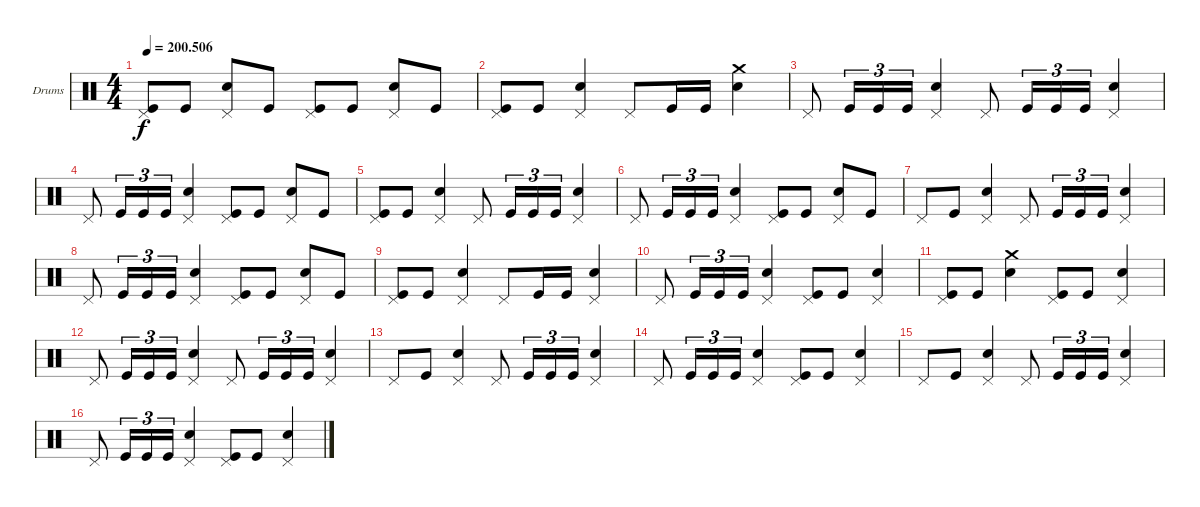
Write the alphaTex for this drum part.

\bracketExtendMode groupsimilarinstruments
\firstSystemTrackNameOrientation horizontal
\otherSystemsTrackNameOrientation horizontal
\track ("Drums" "Drums") {instrument percussion}
\staff {score}
\articulation defaults
\ts (4 4)
\tempo
200.506
\accidentals auto
\clef neutral
\ottava regular
\simile none
\ks c
("Pedal Hi-Hat (hit)" "Kick (hit)").8{dy f} "Kick (hit)".8 ("Pedal Hi-Hat (hit)" "Snare (hit) 2").8 "Kick (hit)".8 ("Pedal Hi-Hat (hit)" "Kick (hit)").8 "Kick (hit)".8 ("Pedal Hi-Hat (hit)" "Snare (hit) 2").8 "Kick (hit)".8 |
("Pedal Hi-Hat (hit)" "Kick (hit)").8 "Kick (hit)".8 ("Pedal Hi-Hat (hit)" "Snare (hit) 2").4 "Pedal Hi-Hat (hit)".8 "Kick (hit)".16 "Kick (hit)".16 ("Crash medium (hit)" "Snare (hit) 2").4 |
"Pedal Hi-Hat (hit)".8 "Kick (hit)".16{tu (3 2)} "Kick (hit)".16{tu (3 2)} "Kick (hit)".16{tu (3 2)} ("Pedal Hi-Hat (hit)" "Snare (hit) 2").4 "Pedal Hi-Hat (hit)".8 "Kick (hit)".16{tu (3 2)} "Kick (hit)".16{tu (3 2)} "Kick (hit)".16{tu (3 2)} ("Pedal Hi-Hat (hit)" "Snare (hit) 2").4 |
"Pedal Hi-Hat (hit)".8 "Kick (hit)".16{tu (3 2)} "Kick (hit)".16{tu (3 2)} "Kick (hit)".16{tu (3 2)} ("Pedal Hi-Hat (hit)" "Snare (hit) 2").4 ("Pedal Hi-Hat (hit)" "Kick (hit)").8 "Kick (hit)".8 ("Pedal Hi-Hat (hit)" "Snare (hit) 2").8 "Kick (hit)".8 |
("Pedal Hi-Hat (hit)" "Kick (hit)").8 "Kick (hit)".8 ("Pedal Hi-Hat (hit)" "Snare (hit) 2").4 "Pedal Hi-Hat (hit)".8 "Kick (hit)".16{tu (3 2)} "Kick (hit)".16{tu (3 2)} "Kick (hit)".16{tu (3 2)} ("Pedal Hi-Hat (hit)" "Snare (hit) 2").4 |
"Pedal Hi-Hat (hit)".8 "Kick (hit)".16{tu (3 2)} "Kick (hit)".16{tu (3 2)} "Kick (hit)".16{tu (3 2)} ("Pedal Hi-Hat (hit)" "Snare (hit) 2").4 ("Pedal Hi-Hat (hit)" "Kick (hit)").8 "Kick (hit)".8 ("Pedal Hi-Hat (hit)" "Snare (hit) 2").8 "Kick (hit)".8 |
"Pedal Hi-Hat (hit)".8 "Kick (hit)".8 ("Pedal Hi-Hat (hit)" "Snare (hit) 2").4 "Pedal Hi-Hat (hit)".8 "Kick (hit)".16{tu (3 2)} "Kick (hit)".16{tu (3 2)} "Kick (hit)".16{tu (3 2)} ("Pedal Hi-Hat (hit)" "Snare (hit) 2").4 |
"Pedal Hi-Hat (hit)".8 "Kick (hit)".16{tu (3 2)} "Kick (hit)".16{tu (3 2)} "Kick (hit)".16{tu (3 2)} ("Pedal Hi-Hat (hit)" "Snare (hit) 2").4 ("Pedal Hi-Hat (hit)" "Kick (hit)").8 "Kick (hit)".8 ("Pedal Hi-Hat (hit)" "Snare (hit) 2").8 "Kick (hit)".8 |
("Pedal Hi-Hat (hit)" "Kick (hit)").8 "Kick (hit)".8 ("Pedal Hi-Hat (hit)" "Snare (hit) 2").4 "Pedal Hi-Hat (hit)".8 "Kick (hit)".16 "Kick (hit)".16 ("Pedal Hi-Hat (hit)" "Snare (hit) 2").4 |
"Pedal Hi-Hat (hit)".8 "Kick (hit)".16{tu (3 2)} "Kick (hit)".16{tu (3 2)} "Kick (hit)".16{tu (3 2)} ("Pedal Hi-Hat (hit)" "Snare (hit) 2").4 ("Pedal Hi-Hat (hit)" "Kick (hit)").8 "Kick (hit)".8 ("Pedal Hi-Hat (hit)" "Snare (hit) 2").4 |
("Pedal Hi-Hat (hit)" "Kick (hit)").8 "Kick (hit)".8 ("Crash medium (hit)" "Snare (hit) 2").4 ("Pedal Hi-Hat (hit)" "Kick (hit)").8 "Kick (hit)".8 ("Pedal Hi-Hat (hit)" "Snare (hit) 2").4 |
"Pedal Hi-Hat (hit)".8 "Kick (hit)".16{tu (3 2)} "Kick (hit)".16{tu (3 2)} "Kick (hit)".16{tu (3 2)} ("Pedal Hi-Hat (hit)" "Snare (hit) 2").4 "Pedal Hi-Hat (hit)".8 "Kick (hit)".16{tu (3 2)} "Kick (hit)".16{tu (3 2)} "Kick (hit)".16{tu (3 2)} ("Pedal Hi-Hat (hit)" "Snare (hit) 2").4 |
"Pedal Hi-Hat (hit)".8 "Kick (hit)".8 ("Pedal Hi-Hat (hit)" "Snare (hit) 2").4 "Pedal Hi-Hat (hit)".8 "Kick (hit)".16{tu (3 2)} "Kick (hit)".16{tu (3 2)} "Kick (hit)".16{tu (3 2)} ("Pedal Hi-Hat (hit)" "Snare (hit) 2").4 |
"Pedal Hi-Hat (hit)".8 "Kick (hit)".16{tu (3 2)} "Kick (hit)".16{tu (3 2)} "Kick (hit)".16{tu (3 2)} ("Pedal Hi-Hat (hit)" "Snare (hit) 2").4 ("Pedal Hi-Hat (hit)" "Kick (hit)").8 "Kick (hit)".8 ("Pedal Hi-Hat (hit)" "Snare (hit) 2").4 |
"Pedal Hi-Hat (hit)".8 "Kick (hit)".8 ("Pedal Hi-Hat (hit)" "Snare (hit) 2").4 "Pedal Hi-Hat (hit)".8 "Kick (hit)".16{tu (3 2)} "Kick (hit)".16{tu (3 2)} "Kick (hit)".16{tu (3 2)} ("Pedal Hi-Hat (hit)" "Snare (hit) 2").4 |
"Pedal Hi-Hat (hit)".8 "Kick (hit)".16{tu (3 2)} "Kick (hit)".16{tu (3 2)} "Kick (hit)".16{tu (3 2)} ("Pedal Hi-Hat (hit)" "Snare (hit) 2").4 ("Pedal Hi-Hat (hit)" "Kick (hit)").8 "Kick (hit)".8 ("Pedal Hi-Hat (hit)" "Snare (hit) 2").4
